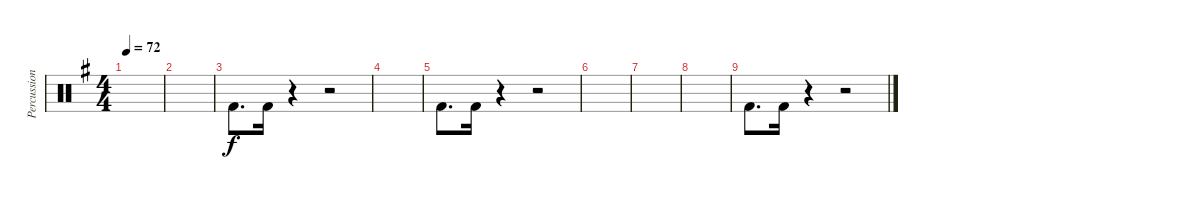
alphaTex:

\track ("Percussion" "Percussion") {instrument percussion}
\staff {score}
\articulation defaults
\ts (4 4)
\tempo 72
\clef neutral
\ks g
|
|
"Kick (hit) 2".8{d beam Down} "Kick (hit) 2".16{beam Down} r.4 r.2 |
|
"Kick (hit) 2".8{d beam Down} "Kick (hit) 2".16{beam Down} r.4 r.2 |
|
|
|
"Kick (hit) 2".8{d beam Down} "Kick (hit) 2".16{beam Down} r.4 r.2
